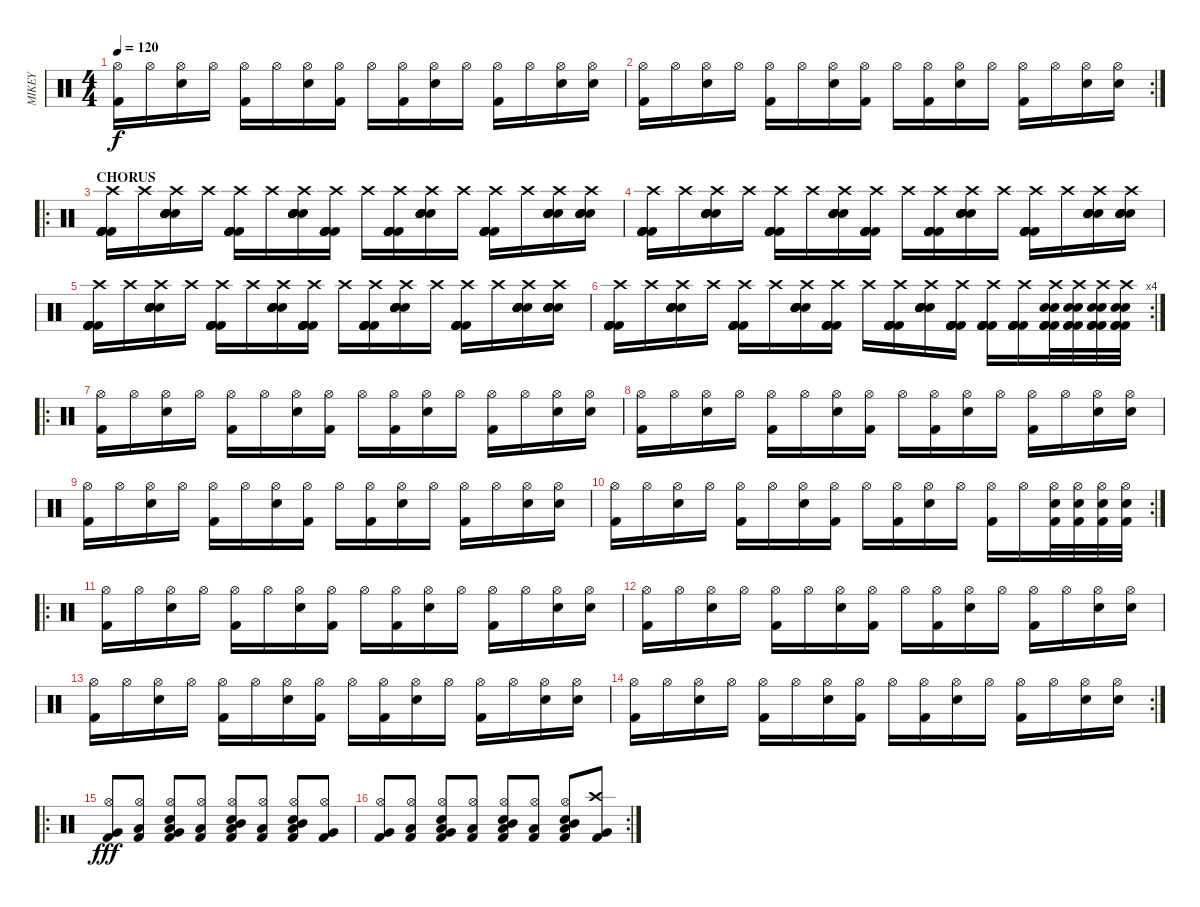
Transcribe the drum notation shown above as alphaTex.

\track ("MIKEY" "MIKEY") {instrument percussion}
\staff {score}
\articulation defaults
\ts (4 4)
\tempo 120
\clef neutral
\ks c
("Kick (hit) 2" "Hi-Hat (open)").16{dy f} "Hi-Hat (open)".16 ("Electric Snare (hit)" "Hi-Hat (open)").16 "Hi-Hat (open)".16 ("Kick (hit) 2" "Hi-Hat (open)").16 "Hi-Hat (open)".16 ("Electric Snare (hit)" "Hi-Hat (open)").16 ("Kick (hit) 2" "Hi-Hat (open)").16 "Hi-Hat (open)".16 ("Kick (hit) 2" "Hi-Hat (open)").16 ("Electric Snare (hit)" "Hi-Hat (open)").16 "Hi-Hat (open)".16 ("Kick (hit) 2" "Hi-Hat (open)").16 "Hi-Hat (open)".16 ("Electric Snare (hit)" "Hi-Hat (open)").16 ("Electric Snare (hit)" "Hi-Hat (open)").16 |
\rc 2
("Kick (hit) 2" "Hi-Hat (open)").16 "Hi-Hat (open)".16 ("Electric Snare (hit)" "Hi-Hat (open)").16 "Hi-Hat (open)".16 ("Kick (hit) 2" "Hi-Hat (open)").16 "Hi-Hat (open)".16 ("Electric Snare (hit)" "Hi-Hat (open)").16 ("Kick (hit) 2" "Hi-Hat (open)").16 "Hi-Hat (open)".16 ("Kick (hit) 2" "Hi-Hat (open)").16 ("Electric Snare (hit)" "Hi-Hat (open)").16 "Hi-Hat (open)".16 ("Kick (hit) 2" "Hi-Hat (open)").16 "Hi-Hat (open)".16 ("Electric Snare (hit)" "Hi-Hat (open)").16 ("Electric Snare (hit)" "Hi-Hat (open)").16 |
\ro
\section ("" "CHORUS")
("Kick (hit) 2" "Kick (hit) 2" "Kick (hit) 2" "Kick (hit) 2" "Kick (hit) 2" "Crash high (hit)").16 "Crash high (hit)".16 ("Electric Snare (hit)" "Electric Snare (hit)" "Electric Snare (hit)" "Electric Snare (hit)" "Electric Snare (hit)" "Crash high (hit)").16 "Crash high (hit)".16 ("Kick (hit) 2" "Kick (hit) 2" "Kick (hit) 2" "Kick (hit) 2" "Kick (hit) 2" "Crash high (hit)").16 "Crash high (hit)".16 ("Electric Snare (hit)" "Electric Snare (hit)" "Electric Snare (hit)" "Electric Snare (hit)" "Electric Snare (hit)" "Crash high (hit)").16 ("Kick (hit) 2" "Kick (hit) 2" "Kick (hit) 2" "Kick (hit) 2" "Kick (hit) 2" "Crash high (hit)").16 "Crash high (hit)".16 ("Kick (hit) 2" "Kick (hit) 2" "Kick (hit) 2" "Kick (hit) 2" "Kick (hit) 2" "Crash high (hit)").16 ("Electric Snare (hit)" "Electric Snare (hit)" "Electric Snare (hit)" "Electric Snare (hit)" "Electric Snare (hit)" "Crash high (hit)").16 "Crash high (hit)".16 ("Kick (hit) 2" "Kick (hit) 2" "Kick (hit) 2" "Kick (hit) 2" "Kick (hit) 2" "Crash high (hit)").16 "Crash high (hit)".16 ("Electric Snare (hit)" "Electric Snare (hit)" "Electric Snare (hit)" "Electric Snare (hit)" "Electric Snare (hit)" "Crash high (hit)").16 ("Electric Snare (hit)" "Electric Snare (hit)" "Electric Snare (hit)" "Electric Snare (hit)" "Electric Snare (hit)" "Crash high (hit)").16 |
("Kick (hit) 2" "Kick (hit) 2" "Kick (hit) 2" "Kick (hit) 2" "Kick (hit) 2" "Crash high (hit)").16 "Crash high (hit)".16 ("Electric Snare (hit)" "Electric Snare (hit)" "Electric Snare (hit)" "Electric Snare (hit)" "Electric Snare (hit)" "Crash high (hit)").16 "Crash high (hit)".16 ("Kick (hit) 2" "Kick (hit) 2" "Kick (hit) 2" "Kick (hit) 2" "Kick (hit) 2" "Crash high (hit)").16 "Crash high (hit)".16 ("Electric Snare (hit)" "Electric Snare (hit)" "Electric Snare (hit)" "Electric Snare (hit)" "Electric Snare (hit)" "Crash high (hit)").16 ("Kick (hit) 2" "Kick (hit) 2" "Kick (hit) 2" "Kick (hit) 2" "Kick (hit) 2" "Crash high (hit)").16 "Crash high (hit)".16 ("Kick (hit) 2" "Kick (hit) 2" "Kick (hit) 2" "Kick (hit) 2" "Kick (hit) 2" "Crash high (hit)").16 ("Electric Snare (hit)" "Electric Snare (hit)" "Electric Snare (hit)" "Electric Snare (hit)" "Electric Snare (hit)" "Crash high (hit)").16 "Crash high (hit)".16 ("Kick (hit) 2" "Kick (hit) 2" "Kick (hit) 2" "Kick (hit) 2" "Kick (hit) 2" "Crash high (hit)").16 "Crash high (hit)".16 ("Electric Snare (hit)" "Electric Snare (hit)" "Electric Snare (hit)" "Electric Snare (hit)" "Electric Snare (hit)" "Crash high (hit)").16 ("Electric Snare (hit)" "Electric Snare (hit)" "Electric Snare (hit)" "Electric Snare (hit)" "Electric Snare (hit)" "Crash high (hit)").16 |
("Kick (hit) 2" "Kick (hit) 2" "Kick (hit) 2" "Kick (hit) 2" "Kick (hit) 2" "Crash high (hit)").16 "Crash high (hit)".16 ("Electric Snare (hit)" "Electric Snare (hit)" "Electric Snare (hit)" "Electric Snare (hit)" "Electric Snare (hit)" "Crash high (hit)").16 "Crash high (hit)".16 ("Kick (hit) 2" "Kick (hit) 2" "Kick (hit) 2" "Kick (hit) 2" "Kick (hit) 2" "Crash high (hit)").16 "Crash high (hit)".16 ("Electric Snare (hit)" "Electric Snare (hit)" "Electric Snare (hit)" "Electric Snare (hit)" "Electric Snare (hit)" "Crash high (hit)").16 ("Kick (hit) 2" "Kick (hit) 2" "Kick (hit) 2" "Kick (hit) 2" "Kick (hit) 2" "Crash high (hit)").16 "Crash high (hit)".16 ("Kick (hit) 2" "Kick (hit) 2" "Kick (hit) 2" "Kick (hit) 2" "Kick (hit) 2" "Crash high (hit)").16 ("Electric Snare (hit)" "Electric Snare (hit)" "Electric Snare (hit)" "Electric Snare (hit)" "Electric Snare (hit)" "Crash high (hit)").16 "Crash high (hit)".16 ("Kick (hit) 2" "Kick (hit) 2" "Kick (hit) 2" "Kick (hit) 2" "Kick (hit) 2" "Crash high (hit)").16 "Crash high (hit)".16 ("Electric Snare (hit)" "Electric Snare (hit)" "Electric Snare (hit)" "Electric Snare (hit)" "Electric Snare (hit)" "Crash high (hit)").16 ("Electric Snare (hit)" "Electric Snare (hit)" "Electric Snare (hit)" "Electric Snare (hit)" "Electric Snare (hit)" "Crash high (hit)").16 |
\rc 4
("Kick (hit) 2" "Kick (hit) 2" "Kick (hit) 2" "Kick (hit) 2" "Kick (hit) 2" "Crash high (hit)").16 "Crash high (hit)".16 ("Electric Snare (hit)" "Electric Snare (hit)" "Electric Snare (hit)" "Electric Snare (hit)" "Electric Snare (hit)" "Crash high (hit)").16 "Crash high (hit)".16 ("Kick (hit) 2" "Kick (hit) 2" "Kick (hit) 2" "Kick (hit) 2" "Kick (hit) 2" "Crash high (hit)").16 "Crash high (hit)".16 ("Electric Snare (hit)" "Electric Snare (hit)" "Electric Snare (hit)" "Electric Snare (hit)" "Electric Snare (hit)" "Crash high (hit)").16 ("Kick (hit) 2" "Kick (hit) 2" "Kick (hit) 2" "Kick (hit) 2" "Kick (hit) 2" "Crash high (hit)").16 "Crash high (hit)".16 ("Kick (hit) 2" "Kick (hit) 2" "Kick (hit) 2" "Kick (hit) 2" "Kick (hit) 2" "Crash high (hit)").16 ("Electric Snare (hit)" "Electric Snare (hit)" "Electric Snare (hit)" "Electric Snare (hit)" "Electric Snare (hit)" "Crash high (hit)").16 ("Kick (hit) 2" "Kick (hit) 2" "Kick (hit) 2" "Kick (hit) 2" "Kick (hit) 2" "Crash high (hit)").16 ("Kick (hit) 2" "Kick (hit) 2" "Kick (hit) 2" "Kick (hit) 2" "Kick (hit) 2" "Crash high (hit)").16 ("Kick (hit) 2" "Kick (hit) 2" "Kick (hit) 2" "Kick (hit) 2" "Kick (hit) 2" "Crash high (hit)").16 ("Kick (hit) 2" "Electric Snare (hit)" "Kick (hit) 2" "Kick (hit) 2" "Electric Snare (hit)" "Crash high (hit)").32 ("Kick (hit) 2" "Electric Snare (hit)" "Kick (hit) 2" "Kick (hit) 2" "Electric Snare (hit)" "Crash high (hit)").32 ("Kick (hit) 2" "Electric Snare (hit)" "Kick (hit) 2" "Kick (hit) 2" "Electric Snare (hit)" "Crash high (hit)").32 ("Kick (hit) 2" "Electric Snare (hit)" "Kick (hit) 2" "Kick (hit) 2" "Electric Snare (hit)" "Crash high (hit)").32 |
\ro
("Kick (hit) 2" "Hi-Hat (open)").16 "Hi-Hat (open)".16 ("Electric Snare (hit)" "Hi-Hat (open)").16 "Hi-Hat (open)".16 ("Kick (hit) 2" "Hi-Hat (open)").16 "Hi-Hat (open)".16 ("Electric Snare (hit)" "Hi-Hat (open)").16 ("Kick (hit) 2" "Hi-Hat (open)").16 "Hi-Hat (open)".16 ("Kick (hit) 2" "Hi-Hat (open)").16 ("Electric Snare (hit)" "Hi-Hat (open)").16 "Hi-Hat (open)".16 ("Kick (hit) 2" "Hi-Hat (open)").16 "Hi-Hat (open)".16 ("Electric Snare (hit)" "Hi-Hat (open)").16 ("Electric Snare (hit)" "Hi-Hat (open)").16 |
("Kick (hit) 2" "Hi-Hat (open)").16 "Hi-Hat (open)".16 ("Electric Snare (hit)" "Hi-Hat (open)").16 "Hi-Hat (open)".16 ("Kick (hit) 2" "Hi-Hat (open)").16 "Hi-Hat (open)".16 ("Electric Snare (hit)" "Hi-Hat (open)").16 ("Kick (hit) 2" "Hi-Hat (open)").16 "Hi-Hat (open)".16 ("Kick (hit) 2" "Hi-Hat (open)").16 ("Electric Snare (hit)" "Hi-Hat (open)").16 "Hi-Hat (open)".16 ("Kick (hit) 2" "Hi-Hat (open)").16 "Hi-Hat (open)".16 ("Electric Snare (hit)" "Hi-Hat (open)").16 ("Electric Snare (hit)" "Hi-Hat (open)").16 |
("Kick (hit) 2" "Hi-Hat (open)").16 "Hi-Hat (open)".16 ("Electric Snare (hit)" "Hi-Hat (open)").16 "Hi-Hat (open)".16 ("Kick (hit) 2" "Hi-Hat (open)").16 "Hi-Hat (open)".16 ("Electric Snare (hit)" "Hi-Hat (open)").16 ("Kick (hit) 2" "Hi-Hat (open)").16 "Hi-Hat (open)".16 ("Kick (hit) 2" "Hi-Hat (open)").16 ("Electric Snare (hit)" "Hi-Hat (open)").16 "Hi-Hat (open)".16 ("Kick (hit) 2" "Hi-Hat (open)").16 "Hi-Hat (open)".16 ("Electric Snare (hit)" "Hi-Hat (open)").16 ("Electric Snare (hit)" "Hi-Hat (open)").16 |
\rc 2
("Kick (hit) 2" "Hi-Hat (open)").16 "Hi-Hat (open)".16 ("Electric Snare (hit)" "Hi-Hat (open)").16 "Hi-Hat (open)".16 ("Kick (hit) 2" "Hi-Hat (open)").16 "Hi-Hat (open)".16 ("Electric Snare (hit)" "Hi-Hat (open)").16 ("Kick (hit) 2" "Hi-Hat (open)").16 "Hi-Hat (open)".16 ("Kick (hit) 2" "Hi-Hat (open)").16 ("Electric Snare (hit)" "Hi-Hat (open)").16 "Hi-Hat (open)".16 ("Kick (hit) 2" "Hi-Hat (open)").16 "Hi-Hat (open)".16 ("Kick (hit) 2" "Electric Snare (hit)" "Hi-Hat (open)").32 ("Kick (hit) 2" "Electric Snare (hit)" "Hi-Hat (open)").32 ("Kick (hit) 2" "Electric Snare (hit)" "Hi-Hat (open)").32 ("Kick (hit) 2" "Electric Snare (hit)" "Hi-Hat (open)").32 |
\ro
("Kick (hit) 2" "Hi-Hat (open)").16 "Hi-Hat (open)".16 ("Electric Snare (hit)" "Hi-Hat (open)").16 "Hi-Hat (open)".16 ("Kick (hit) 2" "Hi-Hat (open)").16 "Hi-Hat (open)".16 ("Electric Snare (hit)" "Hi-Hat (open)").16 ("Kick (hit) 2" "Hi-Hat (open)").16 "Hi-Hat (open)".16 ("Kick (hit) 2" "Hi-Hat (open)").16 ("Electric Snare (hit)" "Hi-Hat (open)").16 "Hi-Hat (open)".16 ("Kick (hit) 2" "Hi-Hat (open)").16 "Hi-Hat (open)".16 ("Electric Snare (hit)" "Hi-Hat (open)").16 ("Electric Snare (hit)" "Hi-Hat (open)").16 |
("Kick (hit) 2" "Hi-Hat (open)").16 "Hi-Hat (open)".16 ("Electric Snare (hit)" "Hi-Hat (open)").16 "Hi-Hat (open)".16 ("Kick (hit) 2" "Hi-Hat (open)").16 "Hi-Hat (open)".16 ("Electric Snare (hit)" "Hi-Hat (open)").16 ("Kick (hit) 2" "Hi-Hat (open)").16 "Hi-Hat (open)".16 ("Kick (hit) 2" "Hi-Hat (open)").16 ("Electric Snare (hit)" "Hi-Hat (open)").16 "Hi-Hat (open)".16 ("Kick (hit) 2" "Hi-Hat (open)").16 "Hi-Hat (open)".16 ("Electric Snare (hit)" "Hi-Hat (open)").16 ("Electric Snare (hit)" "Hi-Hat (open)").16 |
("Kick (hit) 2" "Hi-Hat (open)").16 "Hi-Hat (open)".16 ("Electric Snare (hit)" "Hi-Hat (open)").16 "Hi-Hat (open)".16 ("Kick (hit) 2" "Hi-Hat (open)").16 "Hi-Hat (open)".16 ("Electric Snare (hit)" "Hi-Hat (open)").16 ("Kick (hit) 2" "Hi-Hat (open)").16 "Hi-Hat (open)".16 ("Kick (hit) 2" "Hi-Hat (open)").16 ("Electric Snare (hit)" "Hi-Hat (open)").16 "Hi-Hat (open)".16 ("Kick (hit) 2" "Hi-Hat (open)").16 "Hi-Hat (open)".16 ("Electric Snare (hit)" "Hi-Hat (open)").16 ("Electric Snare (hit)" "Hi-Hat (open)").16 |
\rc 2
("Kick (hit) 2" "Hi-Hat (open)").16 "Hi-Hat (open)".16 ("Electric Snare (hit)" "Hi-Hat (open)").16 "Hi-Hat (open)".16 ("Kick (hit) 2" "Hi-Hat (open)").16 "Hi-Hat (open)".16 ("Electric Snare (hit)" "Hi-Hat (open)").16 ("Kick (hit) 2" "Hi-Hat (open)").16 "Hi-Hat (open)".16 ("Kick (hit) 2" "Hi-Hat (open)").16 ("Electric Snare (hit)" "Hi-Hat (open)").16 "Hi-Hat (open)".16 ("Kick (hit) 2" "Hi-Hat (open)").16 "Hi-Hat (open)".16 ("Electric Snare (hit)" "Hi-Hat (open)").16 ("Electric Snare (hit)" "Hi-Hat (open)").16 |
\ro
("Kick (hit) 2" "Very Low Tom (hit)" "Hi-Hat (open)").8{dy fff} ("Kick (hit) 2" "Low Tom (hit)" "Hi-Hat (open)").8 ("Low Floor Tom (hit)" "Electric Snare (hit)" "Kick (hit) 2" "Very Low Tom (hit)" "Hi-Hat (open)").8 ("Kick (hit) 2" "Low Tom (hit)" "Hi-Hat (open)").8 ("Low Floor Tom (hit)" "Electric Snare (hit)" "Kick (hit) 2" "Mid Tom (hit)" "Hi-Hat (open)").8 ("Kick (hit) 2" "Low Tom (hit)" "Hi-Hat (open)").8 ("Low Floor Tom (hit)" "Electric Snare (hit)" "Kick (hit) 2" "Mid Tom (hit)" "Hi-Hat (open)").8 ("Kick (hit) 2" "Very Low Tom (hit)" "Hi-Hat (open)").8 |
\rc 2
("Kick (hit) 2" "Very Low Tom (hit)" "Hi-Hat (open)").8 ("Kick (hit) 2" "Low Tom (hit)" "Hi-Hat (open)").8 ("Low Floor Tom (hit)" "Electric Snare (hit)" "Kick (hit) 2" "Very Low Tom (hit)" "Hi-Hat (open)").8 ("Kick (hit) 2" "Low Tom (hit)" "Hi-Hat (open)").8 ("Low Floor Tom (hit)" "Electric Snare (hit)" "Kick (hit) 2" "Mid Tom (hit)" "Hi-Hat (open)").8 ("Kick (hit) 2" "Low Tom (hit)" "Hi-Hat (open)").8 ("Low Floor Tom (hit)" "Electric Snare (hit)" "Kick (hit) 2" "Mid Tom (hit)" "Hi-Hat (open)").8 ("Kick (hit) 2" "Very Low Tom (hit)" "Crash high (hit)").8
